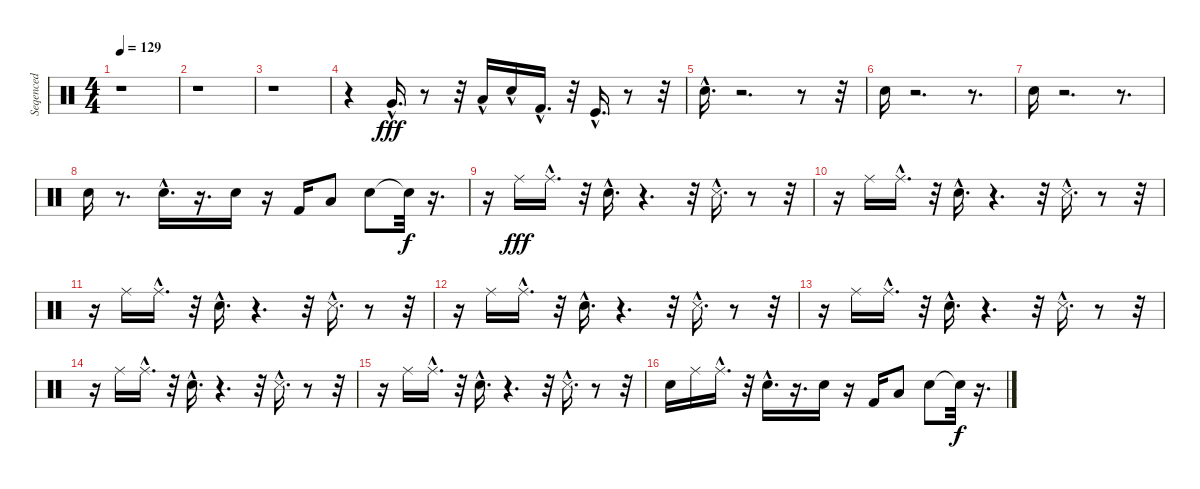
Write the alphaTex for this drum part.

\track (" Seqenced by Juri D." " Seqenced ") {instrument percussion}
\staff {score}
\articulation defaults
\ts (4 4)
\tempo 129
\clef neutral
\ks c
r.1{dy fff} |
r.1 |
r.1 |
r.4 "Very Low Tom (hit)"{hac}.16{d} r.8 r.32 "Low Tom (hit)"{hac}.16 "Electric Snare (hit)"{hac}.16 "Kick (hit) 2"{hac}.16{d} r.32 "Kick (hit)"{hac}.16{d} r.8 r.32 |
"Snare (hit) 2"{hac}.16{d} r.2{d} r.8 r.32 |
"Snare (hit) 2".16 r.2{d} r.8{d} |
"Snare (hit) 2".16 r.2{d} r.8{d} |
"Snare (hit) 2".16 r.8{d} "Snare (hit) 2"{hac}.16{d} r.16{d} "Snare (hit) 2".16 r.16 "Kick (hit) 2".16 "Low Floor Tom (hit)".8 "Electric Snare (hit)".8 "Snare (hit)"{t}.32{dy f} r.16{d} |
r.16 "Ride (middle)".16{dy fff} "Ride (middle)"{hac}.16{d} r.32 "Electric Snare (hit)"{hac}.16{d} r.4{d} r.32 "Snare (side stick) 3"{hac}.16{d} r.8 r.32 |
r.16 "Ride (middle)".16 "Ride (middle)"{hac}.16{d} r.32 "Electric Snare (hit)"{hac}.16{d} r.4{d} r.32 "Snare (side stick) 3"{hac}.16{d} r.8 r.32 |
r.16 "Ride (middle)".16 "Ride (middle)"{hac}.16{d} r.32 "Electric Snare (hit)"{hac}.16{d} r.4{d} r.32 "Snare (side stick) 3"{hac}.16{d} r.8 r.32 |
r.16 "Ride (middle)".16 "Ride (middle)"{hac}.16{d} r.32 "Electric Snare (hit)"{hac}.16{d} r.4{d} r.32 "Snare (side stick) 3"{hac}.16{d} r.8 r.32 |
r.16 "Ride (middle)".16 "Ride (middle)"{hac}.16{d} r.32 "Electric Snare (hit)"{hac}.16{d} r.4{d} r.32 "Snare (side stick) 3"{hac}.16{d} r.8 r.32 |
r.16 "Ride (middle)".16 "Ride (middle)"{hac}.16{d} r.32 "Electric Snare (hit)"{hac}.16{d} r.4{d} r.32 "Snare (side stick) 3"{hac}.16{d} r.8 r.32 |
r.16 "Ride (middle)".16 "Ride (middle)"{hac}.16{d} r.32 "Electric Snare (hit)"{hac}.16{d} r.4{d} r.32 "Snare (side stick) 3"{hac}.16{d} r.8 r.32 |
"Snare (hit) 2".16 "Ride (middle)".16 "Ride (middle)"{hac}.16{d} r.32 "Snare (hit) 2"{hac}.16{d} r.16{d} "Snare (hit) 2".16 r.16 "Kick (hit) 2".16 "Low Floor Tom (hit)".8 "Electric Snare (hit)".8 "Snare (hit)"{t}.32{dy f} r.16{d}
